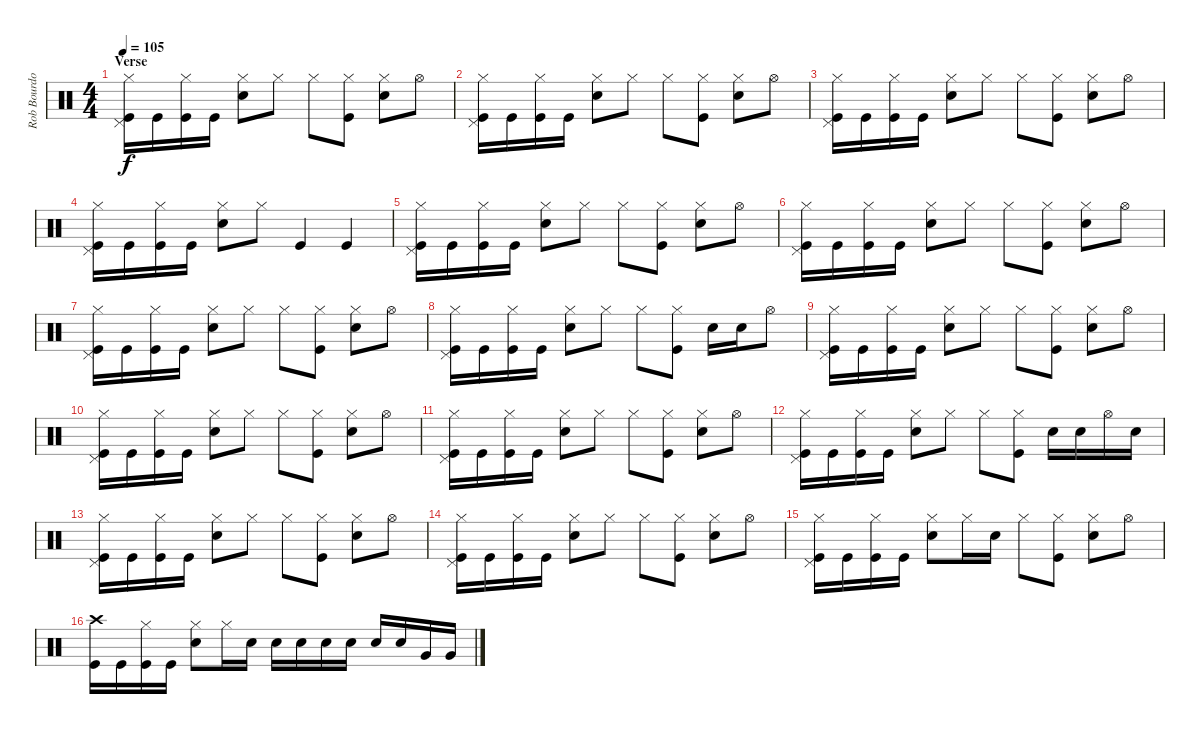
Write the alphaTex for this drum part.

\track ("Rob Bourdon - Drums" "Rob Bourdo") {instrument percussion}
\staff {score}
\articulation defaults
\ts (4 4)
\section ("" "Verse")
\tempo 105
\clef neutral
\ks c
("Hi-Hat (closed)" "Pedal Hi-Hat (hit)" "Kick (hit)").16{dy f} "Kick (hit)".16 ("Hi-Hat (closed)" "Kick (hit)").16 "Kick (hit)".16 ("Hi-Hat (closed)" "Electric Snare (hit)").8 "Hi-Hat (closed)".8 "Hi-Hat (closed)".8 ("Hi-Hat (closed)" "Kick (hit)").8 ("Hi-Hat (closed)" "Electric Snare (hit)").8 "Hi-Hat (open)".8 |
("Hi-Hat (closed)" "Pedal Hi-Hat (hit)" "Kick (hit)").16 "Kick (hit)".16 ("Hi-Hat (closed)" "Kick (hit)").16 "Kick (hit)".16 ("Hi-Hat (closed)" "Electric Snare (hit)").8 "Hi-Hat (closed)".8 "Hi-Hat (closed)".8 ("Hi-Hat (closed)" "Kick (hit)").8 ("Hi-Hat (closed)" "Electric Snare (hit)").8 "Hi-Hat (open)".8 |
("Hi-Hat (closed)" "Pedal Hi-Hat (hit)" "Kick (hit)").16 "Kick (hit)".16 ("Hi-Hat (closed)" "Kick (hit)").16 "Kick (hit)".16 ("Hi-Hat (closed)" "Electric Snare (hit)").8 "Hi-Hat (closed)".8 "Hi-Hat (closed)".8 ("Hi-Hat (closed)" "Kick (hit)").8 ("Hi-Hat (closed)" "Electric Snare (hit)").8 "Hi-Hat (open)".8 |
("Hi-Hat (closed)" "Pedal Hi-Hat (hit)" "Kick (hit)").16 "Kick (hit)".16 ("Hi-Hat (closed)" "Kick (hit)").16 "Kick (hit)".16 ("Hi-Hat (closed)" "Electric Snare (hit)").8 "Hi-Hat (closed)".8 "Kick (hit)".4 "Kick (hit)".4 |
("Hi-Hat (closed)" "Pedal Hi-Hat (hit)" "Kick (hit)").16 "Kick (hit)".16 ("Hi-Hat (closed)" "Kick (hit)").16 "Kick (hit)".16 ("Hi-Hat (closed)" "Electric Snare (hit)").8 "Hi-Hat (closed)".8 "Hi-Hat (closed)".8 ("Hi-Hat (closed)" "Kick (hit)").8 ("Hi-Hat (closed)" "Electric Snare (hit)").8 "Hi-Hat (open)".8 |
("Hi-Hat (closed)" "Pedal Hi-Hat (hit)" "Kick (hit)").16 "Kick (hit)".16 ("Hi-Hat (closed)" "Kick (hit)").16 "Kick (hit)".16 ("Hi-Hat (closed)" "Electric Snare (hit)").8 "Hi-Hat (closed)".8 "Hi-Hat (closed)".8 ("Hi-Hat (closed)" "Kick (hit)").8 ("Hi-Hat (closed)" "Electric Snare (hit)").8 "Hi-Hat (open)".8 |
("Hi-Hat (closed)" "Pedal Hi-Hat (hit)" "Kick (hit)").16 "Kick (hit)".16 ("Hi-Hat (closed)" "Kick (hit)").16 "Kick (hit)".16 ("Hi-Hat (closed)" "Electric Snare (hit)").8 "Hi-Hat (closed)".8 "Hi-Hat (closed)".8 ("Hi-Hat (closed)" "Kick (hit)").8 ("Hi-Hat (closed)" "Electric Snare (hit)").8 "Hi-Hat (open)".8 |
("Hi-Hat (closed)" "Pedal Hi-Hat (hit)" "Kick (hit)").16 "Kick (hit)".16 ("Hi-Hat (closed)" "Kick (hit)").16 "Kick (hit)".16 ("Hi-Hat (closed)" "Electric Snare (hit)").8 "Hi-Hat (closed)".8 "Hi-Hat (closed)".8 ("Hi-Hat (closed)" "Kick (hit)").8 "Electric Snare (hit)".16 "Electric Snare (hit)".16 "Hi-Hat (open)".8 |
("Hi-Hat (closed)" "Pedal Hi-Hat (hit)" "Kick (hit)").16 "Kick (hit)".16 ("Hi-Hat (closed)" "Kick (hit)").16 "Kick (hit)".16 ("Hi-Hat (closed)" "Electric Snare (hit)").8 "Hi-Hat (closed)".8 "Hi-Hat (closed)".8 ("Hi-Hat (closed)" "Kick (hit)").8 ("Hi-Hat (closed)" "Electric Snare (hit)").8 "Hi-Hat (open)".8 |
("Hi-Hat (closed)" "Pedal Hi-Hat (hit)" "Kick (hit)").16 "Kick (hit)".16 ("Hi-Hat (closed)" "Kick (hit)").16 "Kick (hit)".16 ("Hi-Hat (closed)" "Electric Snare (hit)").8 "Hi-Hat (closed)".8 "Hi-Hat (closed)".8 ("Hi-Hat (closed)" "Kick (hit)").8 ("Hi-Hat (closed)" "Electric Snare (hit)").8 "Hi-Hat (open)".8 |
("Hi-Hat (closed)" "Pedal Hi-Hat (hit)" "Kick (hit)").16 "Kick (hit)".16 ("Hi-Hat (closed)" "Kick (hit)").16 "Kick (hit)".16 ("Hi-Hat (closed)" "Electric Snare (hit)").8 "Hi-Hat (closed)".8 "Hi-Hat (closed)".8 ("Hi-Hat (closed)" "Kick (hit)").8 ("Hi-Hat (closed)" "Electric Snare (hit)").8 "Hi-Hat (open)".8 |
("Hi-Hat (closed)" "Pedal Hi-Hat (hit)" "Kick (hit)").16 "Kick (hit)".16 ("Hi-Hat (closed)" "Kick (hit)").16 "Kick (hit)".16 ("Hi-Hat (closed)" "Electric Snare (hit)").8 "Hi-Hat (closed)".8 "Hi-Hat (closed)".8 ("Hi-Hat (closed)" "Kick (hit)").8 "Electric Snare (hit)".16 "Electric Snare (hit)".16 "Hi-Hat (open)".16 "Electric Snare (hit)".16 |
("Hi-Hat (closed)" "Pedal Hi-Hat (hit)" "Kick (hit)").16 "Kick (hit)".16 ("Hi-Hat (closed)" "Kick (hit)").16 "Kick (hit)".16 ("Hi-Hat (closed)" "Electric Snare (hit)").8 "Hi-Hat (closed)".8 "Hi-Hat (closed)".8 ("Hi-Hat (closed)" "Kick (hit)").8 ("Hi-Hat (closed)" "Electric Snare (hit)").8 "Hi-Hat (open)".8 |
("Hi-Hat (closed)" "Pedal Hi-Hat (hit)" "Kick (hit)").16 "Kick (hit)".16 ("Hi-Hat (closed)" "Kick (hit)").16 "Kick (hit)".16 ("Hi-Hat (closed)" "Electric Snare (hit)").8 "Hi-Hat (closed)".8 "Hi-Hat (closed)".8 ("Hi-Hat (closed)" "Kick (hit)").8 ("Hi-Hat (closed)" "Electric Snare (hit)").8 "Hi-Hat (open)".8 |
("Hi-Hat (closed)" "Pedal Hi-Hat (hit)" "Kick (hit)").16 "Kick (hit)".16 ("Hi-Hat (closed)" "Kick (hit)").16 "Kick (hit)".16 ("Hi-Hat (closed)" "Electric Snare (hit)").8 "Hi-Hat (closed)".16 "Electric Snare (hit)".16 "Hi-Hat (closed)".8 ("Hi-Hat (closed)" "Kick (hit)").8 ("Hi-Hat (closed)" "Electric Snare (hit)").8 "Hi-Hat (open)".8 |
("Crash high (hit)" "Kick (hit)").16 "Kick (hit)".16 ("Hi-Hat (closed)" "Kick (hit)").16 "Kick (hit)".16 ("Hi-Hat (closed)" "Electric Snare (hit)").8 "Hi-Hat (closed)".16 "Electric Snare (hit)".16 "Electric Snare (hit)".16 "Electric Snare (hit)".16 "Electric Snare (hit)".16 "Electric Snare (hit)".16 "Electric Snare (hit)".16 "Electric Snare (hit)".16 "Very Low Tom (hit)".16 "Very Low Tom (hit)".16
